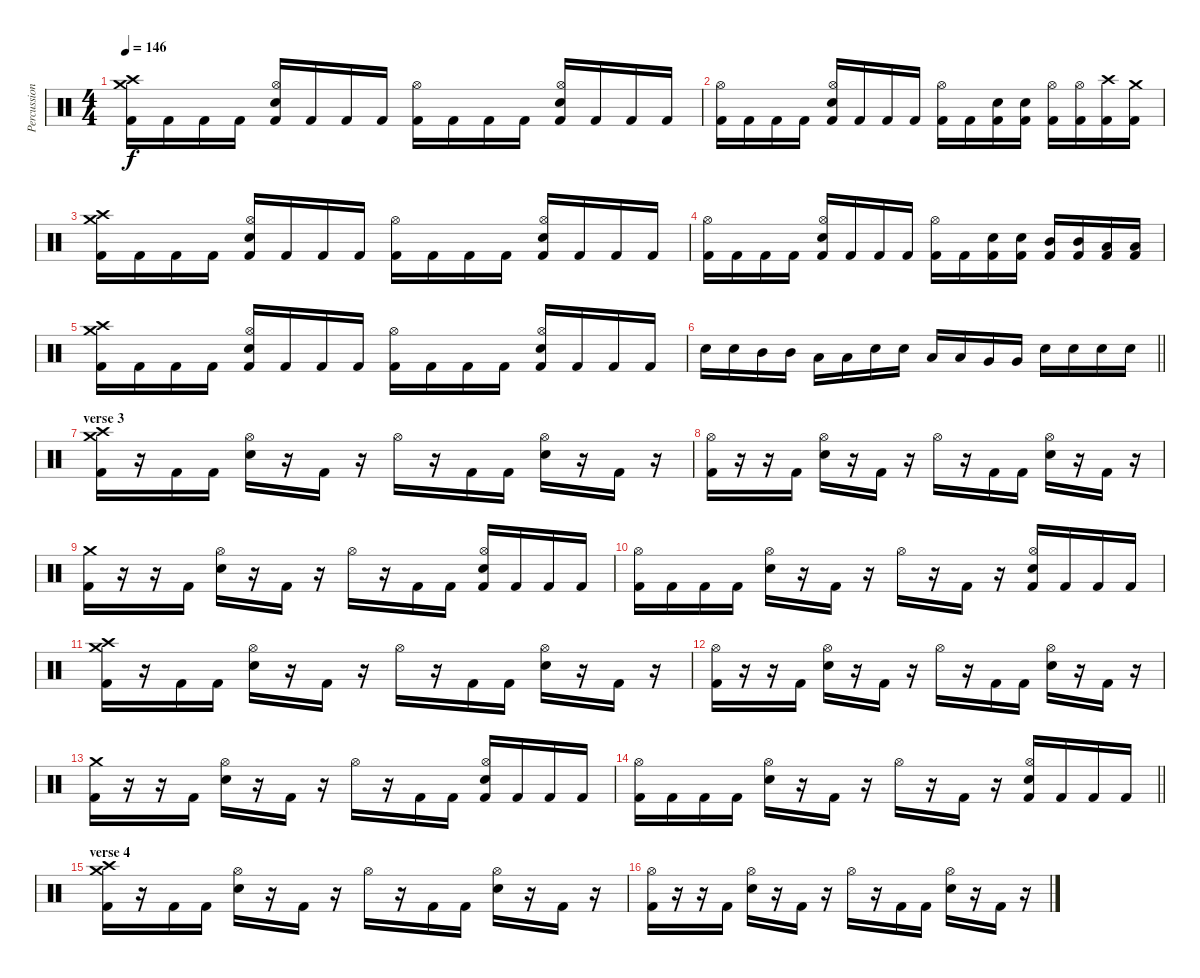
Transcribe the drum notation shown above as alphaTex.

\track ("Percussion" "Percussion") {instrument percussion}
\staff {score}
\articulation defaults
\ts (4 4)
\tempo 146
\clef neutral
\ks c
("Crash high (hit)" "Crash medium (hit)" "Kick (hit) 2").16{dy f} "Kick (hit) 2".16 "Kick (hit) 2".16 "Kick (hit) 2".16 ("Hi-Hat (open)" "Snare (hit) 2" "Kick (hit) 2").16 "Kick (hit) 2".16 "Kick (hit) 2".16 "Kick (hit) 2".16 ("Hi-Hat (open)" "Kick (hit) 2").16 "Kick (hit) 2".16 "Kick (hit) 2".16 "Kick (hit) 2".16 ("Hi-Hat (open)" "Snare (hit) 2" "Kick (hit) 2").16 "Kick (hit) 2".16 "Kick (hit) 2".16 "Kick (hit) 2".16 |
("Hi-Hat (open)" "Kick (hit) 2").16 "Kick (hit) 2".16 "Kick (hit) 2".16 "Kick (hit) 2".16 ("Hi-Hat (open)" "Snare (hit) 2" "Kick (hit) 2").16 "Kick (hit) 2".16 "Kick (hit) 2".16 "Kick (hit) 2".16 ("Hi-Hat (open)" "Kick (hit) 2").16 "Kick (hit) 2".16 ("Snare (hit) 2" "Kick (hit) 2").16 ("Snare (hit) 2" "Kick (hit) 2").16 ("Hi-Hat (open)" "Kick (hit) 2").16 ("Hi-Hat (open)" "Kick (hit) 2").16 ("Crash high (hit)" "Kick (hit) 2").16 ("Crash medium (hit)" "Kick (hit) 2").16 |
("Crash high (hit)" "Crash medium (hit)" "Kick (hit) 2").16 "Kick (hit) 2".16 "Kick (hit) 2".16 "Kick (hit) 2".16 ("Hi-Hat (open)" "Snare (hit) 2" "Kick (hit) 2").16 "Kick (hit) 2".16 "Kick (hit) 2".16 "Kick (hit) 2".16 ("Hi-Hat (open)" "Kick (hit) 2").16 "Kick (hit) 2".16 "Kick (hit) 2".16 "Kick (hit) 2".16 ("Hi-Hat (open)" "Snare (hit) 2" "Kick (hit) 2").16 "Kick (hit) 2".16 "Kick (hit) 2".16 "Kick (hit) 2".16 |
("Hi-Hat (open)" "Kick (hit) 2").16 "Kick (hit) 2".16 "Kick (hit) 2".16 "Kick (hit) 2".16 ("Hi-Hat (open)" "Snare (hit) 2" "Kick (hit) 2").16 "Kick (hit) 2".16 "Kick (hit) 2".16 "Kick (hit) 2".16 ("Hi-Hat (open)" "Kick (hit) 2").16 "Kick (hit) 2".16 ("Snare (hit) 2" "Kick (hit) 2").16 ("Snare (hit) 2" "Kick (hit) 2").16 ("Mid Tom (hit)" "Kick (hit) 2").16 ("Mid Tom (hit)" "Kick (hit) 2").16 ("Low Tom (hit)" "Kick (hit) 2").16 ("Low Tom (hit)" "Kick (hit) 2").16 |
("Crash high (hit)" "Crash medium (hit)" "Kick (hit) 2").16 "Kick (hit) 2".16 "Kick (hit) 2".16 "Kick (hit) 2".16 ("Hi-Hat (open)" "Snare (hit) 2" "Kick (hit) 2").16 "Kick (hit) 2".16 "Kick (hit) 2".16 "Kick (hit) 2".16 ("Hi-Hat (open)" "Kick (hit) 2").16 "Kick (hit) 2".16 "Kick (hit) 2".16 "Kick (hit) 2".16 ("Hi-Hat (open)" "Snare (hit) 2" "Kick (hit) 2").16 "Kick (hit) 2".16 "Kick (hit) 2".16 "Kick (hit) 2".16 |
\barLineRight lightlight "Snare (hit) 2".16 "Snare (hit) 2".16 "Mid Tom (hit)".16 "Mid Tom (hit)".16 "Low Tom (hit)".16 "Low Tom (hit)".16 "Snare (hit) 2".16 "Snare (hit) 2".16 "Low Tom (hit)".16 "Low Tom (hit)".16 "Very Low Tom (hit)".16 "Very Low Tom (hit)".16 "Snare (hit) 2".16 "Snare (hit) 2".16 "Snare (hit) 2".16 "Snare (hit) 2".16
|
\section ("" "verse 3")
("Crash high (hit)" "Crash medium (hit)" "Kick (hit) 2").16 r.16 "Kick (hit) 2".16 "Kick (hit) 2".16 ("Hi-Hat (open)" "Snare (hit) 2").16 r.16 "Kick (hit) 2".16 r.16 "Hi-Hat (open)".16 r.16 "Kick (hit) 2".16 "Kick (hit) 2".16 ("Hi-Hat (open)" "Snare (hit) 2").16 r.16 "Kick (hit) 2".16 r.16 |
("Hi-Hat (open)" "Kick (hit) 2").16 r.16 r.16 "Kick (hit) 2".16 ("Hi-Hat (open)" "Snare (hit) 2").16 r.16 "Kick (hit) 2".16 r.16 "Hi-Hat (open)".16 r.16 "Kick (hit) 2".16 "Kick (hit) 2".16 ("Hi-Hat (open)" "Snare (hit) 2").16 r.16 "Kick (hit) 2".16 r.16 |
("Crash medium (hit)" "Kick (hit) 2").16 r.16 r.16 "Kick (hit) 2".16 ("Hi-Hat (open)" "Snare (hit) 2").16 r.16 "Kick (hit) 2".16 r.16 "Hi-Hat (open)".16 r.16 "Kick (hit) 2".16 "Kick (hit) 2".16 ("Hi-Hat (open)" "Snare (hit) 2" "Kick (hit) 2").16 "Kick (hit) 2".16 "Kick (hit) 2".16 "Kick (hit) 2".16 |
("Hi-Hat (open)" "Kick (hit) 2").16 "Kick (hit) 2".16 "Kick (hit) 2".16 "Kick (hit) 2".16 ("Hi-Hat (open)" "Snare (hit) 2").16 r.16 "Kick (hit) 2".16 r.16 "Hi-Hat (open)".16 r.16 "Kick (hit) 2".16 r.16 ("Hi-Hat (open)" "Snare (hit) 2" "Kick (hit) 2").16 "Kick (hit) 2".16 "Kick (hit) 2".16 "Kick (hit) 2".16 |
("Crash high (hit)" "Crash medium (hit)" "Kick (hit) 2").16 r.16 "Kick (hit) 2".16 "Kick (hit) 2".16 ("Hi-Hat (open)" "Snare (hit) 2").16 r.16 "Kick (hit) 2".16 r.16 "Hi-Hat (open)".16 r.16 "Kick (hit) 2".16 "Kick (hit) 2".16 ("Hi-Hat (open)" "Snare (hit) 2").16 r.16 "Kick (hit) 2".16 r.16 |
("Hi-Hat (open)" "Kick (hit) 2").16 r.16 r.16 "Kick (hit) 2".16 ("Hi-Hat (open)" "Snare (hit) 2").16 r.16 "Kick (hit) 2".16 r.16 "Hi-Hat (open)".16 r.16 "Kick (hit) 2".16 "Kick (hit) 2".16 ("Hi-Hat (open)" "Snare (hit) 2").16 r.16 "Kick (hit) 2".16 r.16 |
("Crash medium (hit)" "Kick (hit) 2").16 r.16 r.16 "Kick (hit) 2".16 ("Hi-Hat (open)" "Snare (hit) 2").16 r.16 "Kick (hit) 2".16 r.16 "Hi-Hat (open)".16 r.16 "Kick (hit) 2".16 "Kick (hit) 2".16 ("Hi-Hat (open)" "Snare (hit) 2" "Kick (hit) 2").16 "Kick (hit) 2".16 "Kick (hit) 2".16 "Kick (hit) 2".16 |
\barLineRight lightlight
("Hi-Hat (open)" "Kick (hit) 2").16 "Kick (hit) 2".16 "Kick (hit) 2".16 "Kick (hit) 2".16 ("Hi-Hat (open)" "Snare (hit) 2").16 r.16 "Kick (hit) 2".16 r.16 "Hi-Hat (open)".16 r.16 "Kick (hit) 2".16 r.16 ("Hi-Hat (open)" "Snare (hit) 2" "Kick (hit) 2").16 "Kick (hit) 2".16 "Kick (hit) 2".16 "Kick (hit) 2".16 |
\section ("" "verse 4")
("Crash high (hit)" "Crash medium (hit)" "Kick (hit) 2").16 r.16 "Kick (hit) 2".16 "Kick (hit) 2".16 ("Hi-Hat (open)" "Snare (hit) 2").16 r.16 "Kick (hit) 2".16 r.16 "Hi-Hat (open)".16 r.16 "Kick (hit) 2".16 "Kick (hit) 2".16 ("Hi-Hat (open)" "Snare (hit) 2").16 r.16 "Kick (hit) 2".16 r.16 |
("Hi-Hat (open)" "Kick (hit) 2").16 r.16 r.16 "Kick (hit) 2".16 ("Hi-Hat (open)" "Snare (hit) 2").16 r.16 "Kick (hit) 2".16 r.16 "Hi-Hat (open)".16 r.16 "Kick (hit) 2".16 "Kick (hit) 2".16 ("Hi-Hat (open)" "Snare (hit) 2").16 r.16 "Kick (hit) 2".16 r.16
